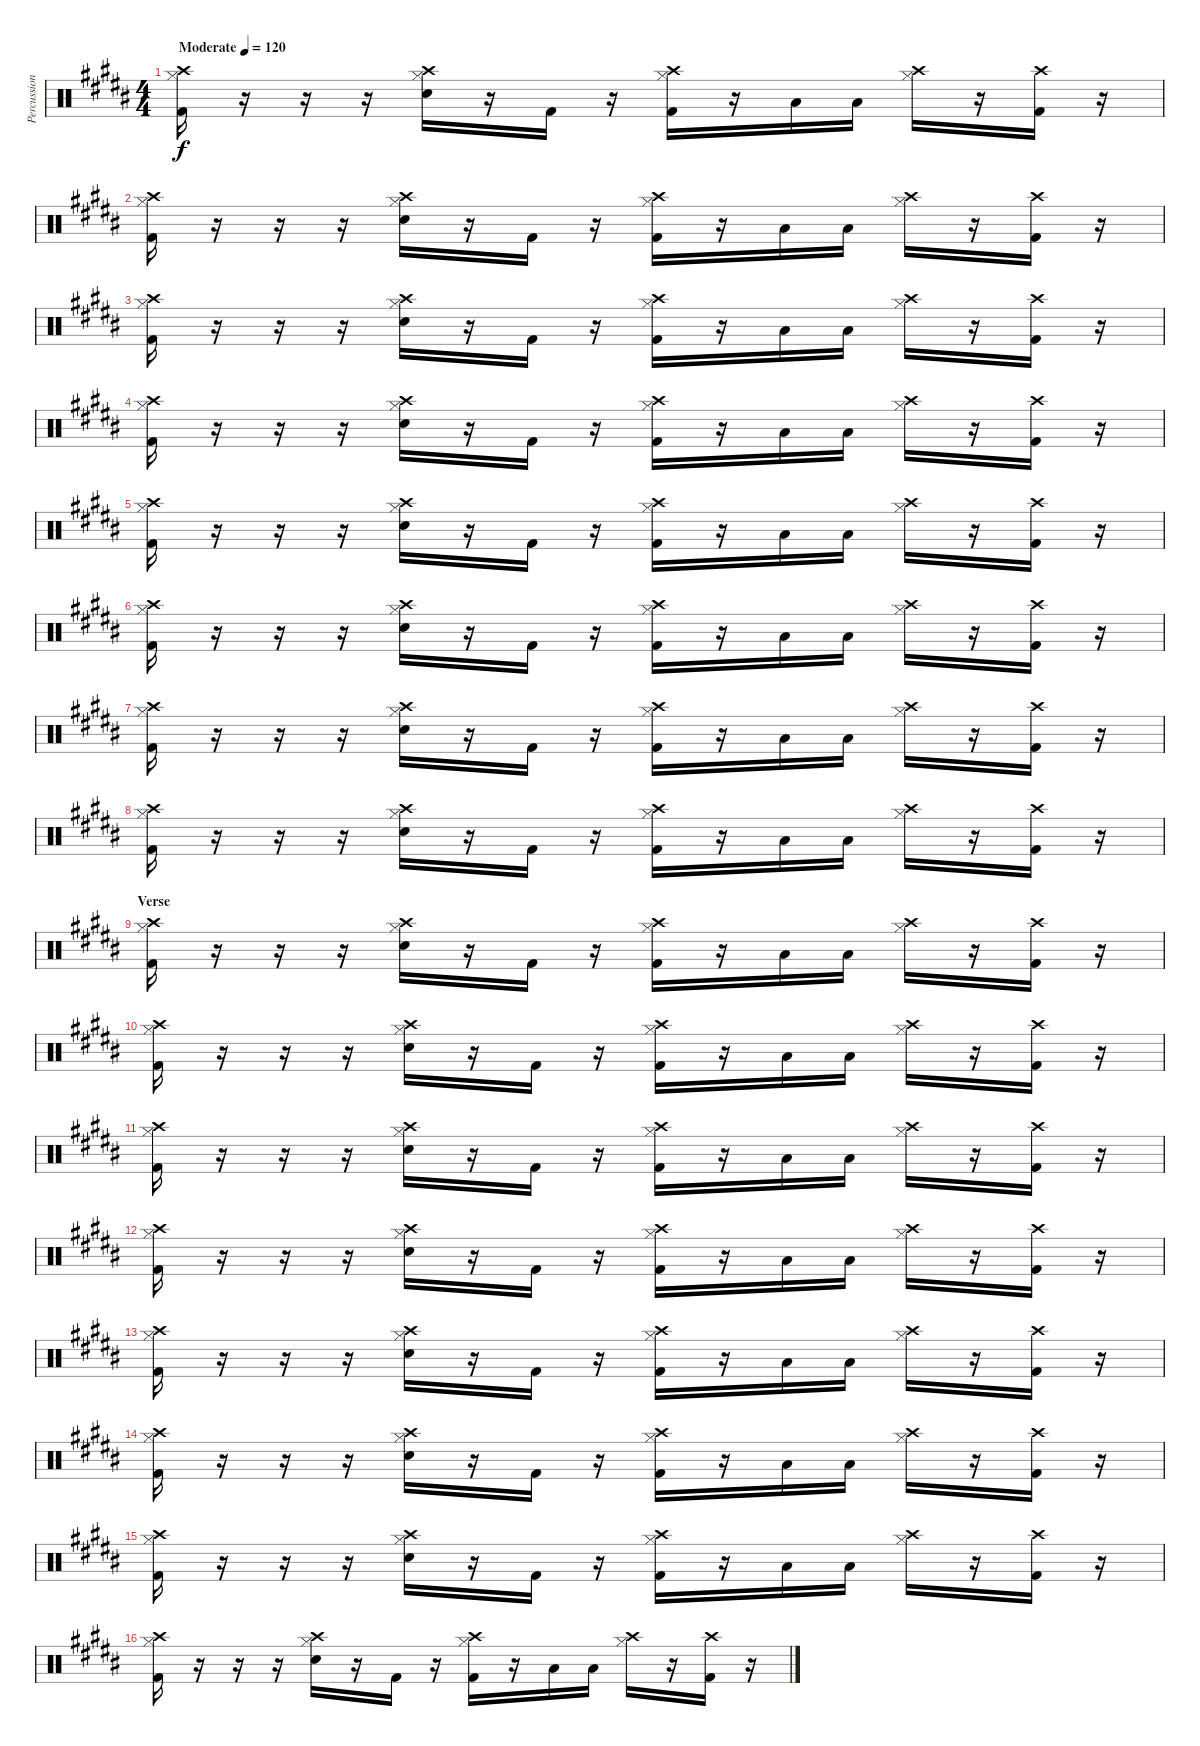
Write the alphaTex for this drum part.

\track ("Percussion" "Percussion") {instrument percussion}
\staff {score}
\articulation defaults
\ts (4 4)
\tempo (120 "Moderate")
\clef neutral
\ks b
("Crash high (hit)" "Hi-Hat (closed)" "Kick (hit) 2").16{dy f} r.16 r.16 r.16 ("Crash high (hit)" "Hi-Hat (closed)" "Electric Snare (hit)").16 r.16 "Kick (hit) 2".16 r.16 ("Crash high (hit)" "Hi-Hat (closed)" "Kick (hit) 2").16 r.16 "Low Tom (hit)".16 "Low Tom (hit)".16 ("Crash high (hit)" "Hi-Hat (closed)").16 r.16 ("Crash high (hit)" "Kick (hit) 2").16 r.16 |
("Crash high (hit)" "Hi-Hat (closed)" "Kick (hit) 2").16 r.16 r.16 r.16 ("Crash high (hit)" "Hi-Hat (closed)" "Electric Snare (hit)").16 r.16 "Kick (hit) 2".16 r.16 ("Crash high (hit)" "Hi-Hat (closed)" "Kick (hit) 2").16 r.16 "Low Tom (hit)".16 "Low Tom (hit)".16 ("Crash high (hit)" "Hi-Hat (closed)").16 r.16 ("Crash high (hit)" "Kick (hit) 2").16 r.16 |
("Crash high (hit)" "Hi-Hat (closed)" "Kick (hit) 2").16 r.16 r.16 r.16 ("Crash high (hit)" "Hi-Hat (closed)" "Electric Snare (hit)").16 r.16 "Kick (hit) 2".16 r.16 ("Crash high (hit)" "Hi-Hat (closed)" "Kick (hit) 2").16 r.16 "Low Tom (hit)".16 "Low Tom (hit)".16 ("Crash high (hit)" "Hi-Hat (closed)").16 r.16 ("Crash high (hit)" "Kick (hit) 2").16 r.16 |
("Crash high (hit)" "Hi-Hat (closed)" "Kick (hit) 2").16 r.16 r.16 r.16 ("Crash high (hit)" "Hi-Hat (closed)" "Electric Snare (hit)").16 r.16 "Kick (hit) 2".16 r.16 ("Crash high (hit)" "Hi-Hat (closed)" "Kick (hit) 2").16 r.16 "Low Tom (hit)".16 "Low Tom (hit)".16 ("Crash high (hit)" "Hi-Hat (closed)").16 r.16 ("Crash high (hit)" "Kick (hit) 2").16 r.16 |
("Crash high (hit)" "Hi-Hat (closed)" "Kick (hit) 2").16 r.16 r.16 r.16 ("Crash high (hit)" "Hi-Hat (closed)" "Electric Snare (hit)").16 r.16 "Kick (hit) 2".16 r.16 ("Crash high (hit)" "Hi-Hat (closed)" "Kick (hit) 2").16 r.16 "Low Tom (hit)".16 "Low Tom (hit)".16 ("Crash high (hit)" "Hi-Hat (closed)").16 r.16 ("Crash high (hit)" "Kick (hit) 2").16 r.16 |
("Crash high (hit)" "Hi-Hat (closed)" "Kick (hit) 2").16 r.16 r.16 r.16 ("Crash high (hit)" "Hi-Hat (closed)" "Electric Snare (hit)").16 r.16 "Kick (hit) 2".16 r.16 ("Crash high (hit)" "Hi-Hat (closed)" "Kick (hit) 2").16 r.16 "Low Tom (hit)".16 "Low Tom (hit)".16 ("Crash high (hit)" "Hi-Hat (closed)").16 r.16 ("Crash high (hit)" "Kick (hit) 2").16 r.16 |
("Crash high (hit)" "Hi-Hat (closed)" "Kick (hit) 2").16 r.16 r.16 r.16 ("Crash high (hit)" "Hi-Hat (closed)" "Electric Snare (hit)").16 r.16 "Kick (hit) 2".16 r.16 ("Crash high (hit)" "Hi-Hat (closed)" "Kick (hit) 2").16 r.16 "Low Tom (hit)".16 "Low Tom (hit)".16 ("Crash high (hit)" "Hi-Hat (closed)").16 r.16 ("Crash high (hit)" "Kick (hit) 2").16 r.16 |
("Crash high (hit)" "Hi-Hat (closed)" "Kick (hit) 2").16 r.16 r.16 r.16 ("Crash high (hit)" "Hi-Hat (closed)" "Electric Snare (hit)").16 r.16 "Kick (hit) 2".16 r.16 ("Crash high (hit)" "Hi-Hat (closed)" "Kick (hit) 2").16 r.16 "Low Tom (hit)".16 "Low Tom (hit)".16 ("Crash high (hit)" "Hi-Hat (closed)").16 r.16 ("Crash high (hit)" "Kick (hit) 2").16 r.16 |
\section ("" "Verse")
("Crash high (hit)" "Hi-Hat (closed)" "Kick (hit) 2").16 r.16 r.16 r.16 ("Crash high (hit)" "Hi-Hat (closed)" "Electric Snare (hit)").16 r.16 "Kick (hit) 2".16 r.16 ("Crash high (hit)" "Hi-Hat (closed)" "Kick (hit) 2").16 r.16 "Low Tom (hit)".16 "Low Tom (hit)".16 ("Crash high (hit)" "Hi-Hat (closed)").16 r.16 ("Crash high (hit)" "Kick (hit) 2").16 r.16 |
("Crash high (hit)" "Hi-Hat (closed)" "Kick (hit) 2").16 r.16 r.16 r.16 ("Crash high (hit)" "Hi-Hat (closed)" "Electric Snare (hit)").16 r.16 "Kick (hit) 2".16 r.16 ("Crash high (hit)" "Hi-Hat (closed)" "Kick (hit) 2").16 r.16 "Low Tom (hit)".16 "Low Tom (hit)".16 ("Crash high (hit)" "Hi-Hat (closed)").16 r.16 ("Crash high (hit)" "Kick (hit) 2").16 r.16 |
("Crash high (hit)" "Hi-Hat (closed)" "Kick (hit) 2").16 r.16 r.16 r.16 ("Crash high (hit)" "Hi-Hat (closed)" "Electric Snare (hit)").16 r.16 "Kick (hit) 2".16 r.16 ("Crash high (hit)" "Hi-Hat (closed)" "Kick (hit) 2").16 r.16 "Low Tom (hit)".16 "Low Tom (hit)".16 ("Crash high (hit)" "Hi-Hat (closed)").16 r.16 ("Crash high (hit)" "Kick (hit) 2").16 r.16 |
("Crash high (hit)" "Hi-Hat (closed)" "Kick (hit) 2").16 r.16 r.16 r.16 ("Crash high (hit)" "Hi-Hat (closed)" "Electric Snare (hit)").16 r.16 "Kick (hit) 2".16 r.16 ("Crash high (hit)" "Hi-Hat (closed)" "Kick (hit) 2").16 r.16 "Low Tom (hit)".16 "Low Tom (hit)".16 ("Crash high (hit)" "Hi-Hat (closed)").16 r.16 ("Crash high (hit)" "Kick (hit) 2").16 r.16 |
("Crash high (hit)" "Hi-Hat (closed)" "Kick (hit) 2").16 r.16 r.16 r.16 ("Crash high (hit)" "Hi-Hat (closed)" "Electric Snare (hit)").16 r.16 "Kick (hit) 2".16 r.16 ("Crash high (hit)" "Hi-Hat (closed)" "Kick (hit) 2").16 r.16 "Low Tom (hit)".16 "Low Tom (hit)".16 ("Crash high (hit)" "Hi-Hat (closed)").16 r.16 ("Crash high (hit)" "Kick (hit) 2").16 r.16 |
("Crash high (hit)" "Hi-Hat (closed)" "Kick (hit) 2").16 r.16 r.16 r.16 ("Crash high (hit)" "Hi-Hat (closed)" "Electric Snare (hit)").16 r.16 "Kick (hit) 2".16 r.16 ("Crash high (hit)" "Hi-Hat (closed)" "Kick (hit) 2").16 r.16 "Low Tom (hit)".16 "Low Tom (hit)".16 ("Crash high (hit)" "Hi-Hat (closed)").16 r.16 ("Crash high (hit)" "Kick (hit) 2").16 r.16 |
("Crash high (hit)" "Hi-Hat (closed)" "Kick (hit) 2").16 r.16 r.16 r.16 ("Crash high (hit)" "Hi-Hat (closed)" "Electric Snare (hit)").16 r.16 "Kick (hit) 2".16 r.16 ("Crash high (hit)" "Hi-Hat (closed)" "Kick (hit) 2").16 r.16 "Low Tom (hit)".16 "Low Tom (hit)".16 ("Crash high (hit)" "Hi-Hat (closed)").16 r.16 ("Crash high (hit)" "Kick (hit) 2").16 r.16 |
("Crash high (hit)" "Hi-Hat (closed)" "Kick (hit) 2").16 r.16 r.16 r.16 ("Crash high (hit)" "Hi-Hat (closed)" "Electric Snare (hit)").16 r.16 "Kick (hit) 2".16 r.16 ("Crash high (hit)" "Hi-Hat (closed)" "Kick (hit) 2").16 r.16 "Low Tom (hit)".16 "Low Tom (hit)".16 ("Crash high (hit)" "Hi-Hat (closed)").16 r.16 ("Crash high (hit)" "Kick (hit) 2").16 r.16
